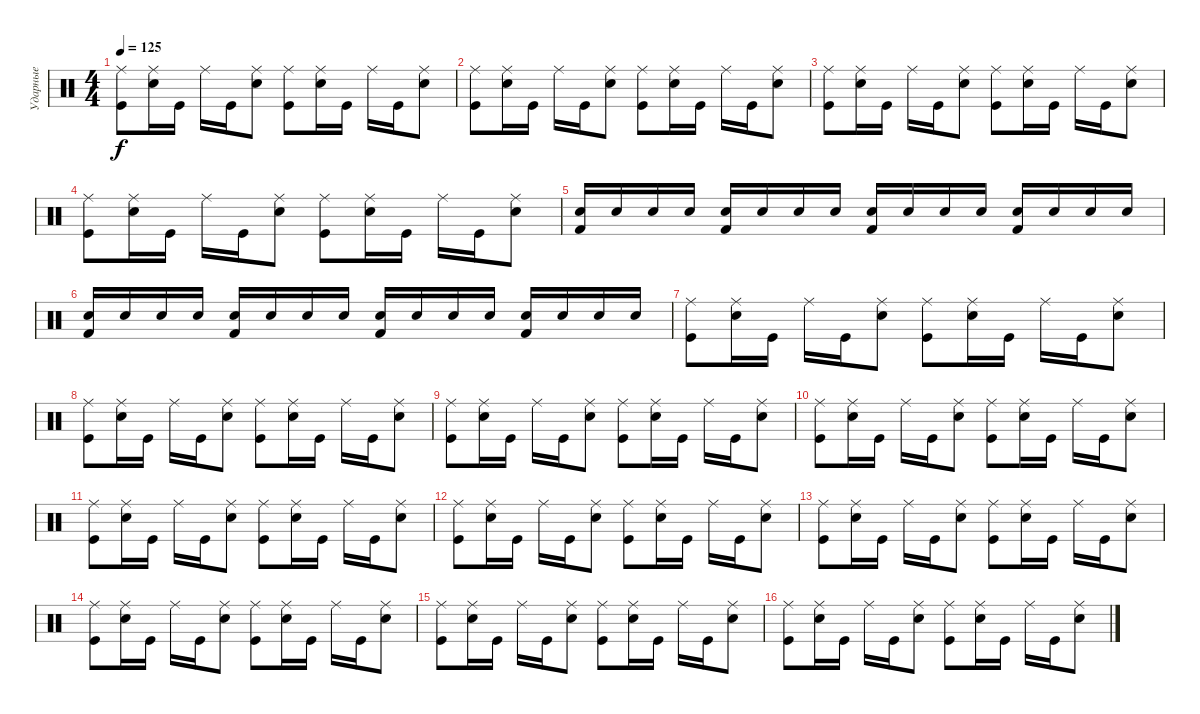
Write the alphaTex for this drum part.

\track ("Ударные" "Ударные") {instrument percussion}
\staff {score}
\articulation defaults
\ts (4 4)
\tempo 125
\clef neutral
\ks c
("Ride (middle)" "Kick (hit)").8{dy f} ("Ride (middle)" "Electric Snare (hit)").16 "Kick (hit)".16 "Ride (middle)".16 "Kick (hit)".16 ("Ride (middle)" "Electric Snare (hit)").8 ("Ride (middle)" "Kick (hit)").8 ("Ride (middle)" "Electric Snare (hit)").16 "Kick (hit)".16 "Ride (middle)".16 "Kick (hit)".16 ("Ride (middle)" "Electric Snare (hit)").8 |
("Ride (middle)" "Kick (hit)").8 ("Ride (middle)" "Electric Snare (hit)").16 "Kick (hit)".16 "Ride (middle)".16 "Kick (hit)".16 ("Ride (middle)" "Electric Snare (hit)").8 ("Ride (middle)" "Kick (hit)").8 ("Ride (middle)" "Electric Snare (hit)").16 "Kick (hit)".16 "Ride (middle)".16 "Kick (hit)".16 ("Ride (middle)" "Electric Snare (hit)").8 |
("Ride (middle)" "Kick (hit)").8 ("Ride (middle)" "Electric Snare (hit)").16 "Kick (hit)".16 "Ride (middle)".16 "Kick (hit)".16 ("Ride (middle)" "Electric Snare (hit)").8 ("Ride (middle)" "Kick (hit)").8 ("Ride (middle)" "Electric Snare (hit)").16 "Kick (hit)".16 "Ride (middle)".16 "Kick (hit)".16 ("Ride (middle)" "Electric Snare (hit)").8 |
("Ride (middle)" "Kick (hit)").8 ("Ride (middle)" "Electric Snare (hit)").16 "Kick (hit)".16 "Ride (middle)".16 "Kick (hit)".16 ("Ride (middle)" "Electric Snare (hit)").8 ("Ride (middle)" "Kick (hit)").8 ("Ride (middle)" "Electric Snare (hit)").16 "Kick (hit)".16 "Ride (middle)".16 "Kick (hit)".16 ("Ride (middle)" "Electric Snare (hit)").8 |
("Electric Snare (hit)" "Kick (hit) 2").16 "Electric Snare (hit)".16 "Electric Snare (hit)".16 "Electric Snare (hit)".16 ("Electric Snare (hit)" "Kick (hit) 2").16 "Electric Snare (hit)".16 "Electric Snare (hit)".16 "Electric Snare (hit)".16 ("Electric Snare (hit)" "Kick (hit) 2").16 "Electric Snare (hit)".16 "Electric Snare (hit)".16 "Electric Snare (hit)".16 ("Electric Snare (hit)" "Kick (hit) 2").16 "Electric Snare (hit)".16 "Electric Snare (hit)".16 "Electric Snare (hit)".16 |
("Electric Snare (hit)" "Kick (hit) 2").16 "Electric Snare (hit)".16 "Electric Snare (hit)".16 "Electric Snare (hit)".16 ("Electric Snare (hit)" "Kick (hit) 2").16 "Electric Snare (hit)".16 "Electric Snare (hit)".16 "Electric Snare (hit)".16 ("Electric Snare (hit)" "Kick (hit) 2").16 "Electric Snare (hit)".16 "Electric Snare (hit)".16 "Electric Snare (hit)".16 ("Electric Snare (hit)" "Kick (hit) 2").16 "Electric Snare (hit)".16 "Electric Snare (hit)".16 "Electric Snare (hit)".16 |
("Ride (middle)" "Kick (hit)").8 ("Ride (middle)" "Electric Snare (hit)").16 "Kick (hit)".16 "Ride (middle)".16 "Kick (hit)".16 ("Ride (middle)" "Electric Snare (hit)").8 ("Ride (middle)" "Kick (hit)").8 ("Ride (middle)" "Electric Snare (hit)").16 "Kick (hit)".16 "Ride (middle)".16 "Kick (hit)".16 ("Ride (middle)" "Electric Snare (hit)").8 |
("Ride (middle)" "Kick (hit)").8 ("Ride (middle)" "Electric Snare (hit)").16 "Kick (hit)".16 "Ride (middle)".16 "Kick (hit)".16 ("Ride (middle)" "Electric Snare (hit)").8 ("Ride (middle)" "Kick (hit)").8 ("Ride (middle)" "Electric Snare (hit)").16 "Kick (hit)".16 "Ride (middle)".16 "Kick (hit)".16 ("Ride (middle)" "Electric Snare (hit)").8 |
("Ride (middle)" "Kick (hit)").8 ("Ride (middle)" "Electric Snare (hit)").16 "Kick (hit)".16 "Ride (middle)".16 "Kick (hit)".16 ("Ride (middle)" "Electric Snare (hit)").8 ("Ride (middle)" "Kick (hit)").8 ("Ride (middle)" "Electric Snare (hit)").16 "Kick (hit)".16 "Ride (middle)".16 "Kick (hit)".16 ("Ride (middle)" "Electric Snare (hit)").8 |
("Ride (middle)" "Kick (hit)").8 ("Ride (middle)" "Electric Snare (hit)").16 "Kick (hit)".16 "Ride (middle)".16 "Kick (hit)".16 ("Ride (middle)" "Electric Snare (hit)").8 ("Ride (middle)" "Kick (hit)").8 ("Ride (middle)" "Electric Snare (hit)").16 "Kick (hit)".16 "Ride (middle)".16 "Kick (hit)".16 ("Ride (middle)" "Electric Snare (hit)").8 |
("Ride (middle)" "Kick (hit)").8 ("Ride (middle)" "Electric Snare (hit)").16 "Kick (hit)".16 "Ride (middle)".16 "Kick (hit)".16 ("Ride (middle)" "Electric Snare (hit)").8 ("Ride (middle)" "Kick (hit)").8 ("Ride (middle)" "Electric Snare (hit)").16 "Kick (hit)".16 "Ride (middle)".16 "Kick (hit)".16 ("Ride (middle)" "Electric Snare (hit)").8 |
("Ride (middle)" "Kick (hit)").8 ("Ride (middle)" "Electric Snare (hit)").16 "Kick (hit)".16 "Ride (middle)".16 "Kick (hit)".16 ("Ride (middle)" "Electric Snare (hit)").8 ("Ride (middle)" "Kick (hit)").8 ("Ride (middle)" "Electric Snare (hit)").16 "Kick (hit)".16 "Ride (middle)".16 "Kick (hit)".16 ("Ride (middle)" "Electric Snare (hit)").8 |
("Ride (middle)" "Kick (hit)").8 ("Ride (middle)" "Electric Snare (hit)").16 "Kick (hit)".16 "Ride (middle)".16 "Kick (hit)".16 ("Ride (middle)" "Electric Snare (hit)").8 ("Ride (middle)" "Kick (hit)").8 ("Ride (middle)" "Electric Snare (hit)").16 "Kick (hit)".16 "Ride (middle)".16 "Kick (hit)".16 ("Ride (middle)" "Electric Snare (hit)").8 |
("Ride (middle)" "Kick (hit)").8 ("Ride (middle)" "Electric Snare (hit)").16 "Kick (hit)".16 "Ride (middle)".16 "Kick (hit)".16 ("Ride (middle)" "Electric Snare (hit)").8 ("Ride (middle)" "Kick (hit)").8 ("Ride (middle)" "Electric Snare (hit)").16 "Kick (hit)".16 "Ride (middle)".16 "Kick (hit)".16 ("Ride (middle)" "Electric Snare (hit)").8 |
("Ride (middle)" "Kick (hit)").8 ("Ride (middle)" "Electric Snare (hit)").16 "Kick (hit)".16 "Ride (middle)".16 "Kick (hit)".16 ("Ride (middle)" "Electric Snare (hit)").8 ("Ride (middle)" "Kick (hit)").8 ("Ride (middle)" "Electric Snare (hit)").16 "Kick (hit)".16 "Ride (middle)".16 "Kick (hit)".16 ("Ride (middle)" "Electric Snare (hit)").8 |
("Ride (middle)" "Kick (hit)").8 ("Ride (middle)" "Electric Snare (hit)").16 "Kick (hit)".16 "Ride (middle)".16 "Kick (hit)".16 ("Ride (middle)" "Electric Snare (hit)").8 ("Ride (middle)" "Kick (hit)").8 ("Ride (middle)" "Electric Snare (hit)").16 "Kick (hit)".16 "Ride (middle)".16 "Kick (hit)".16 ("Ride (middle)" "Electric Snare (hit)").8
